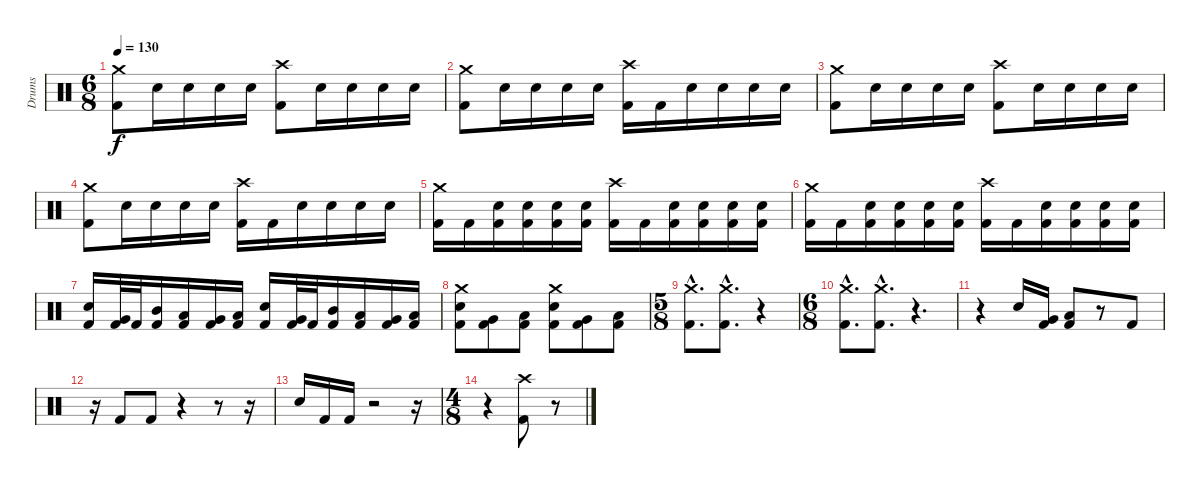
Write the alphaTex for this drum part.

\track ("Drums" "Drums") {instrument percussion}
\staff {score}
\articulation defaults
\ts (6 8)
\section ("" "")
\tempo 130
\clef neutral
\ks c
("Crash medium (hit)" "Kick (hit) 2").8{dy f} "Electric Snare (hit)".16 "Electric Snare (hit)".16 "Electric Snare (hit)".16 "Electric Snare (hit)".16 ("Crash high (hit)" "Kick (hit) 2").8 "Electric Snare (hit)".16 "Electric Snare (hit)".16 "Electric Snare (hit)".16 "Electric Snare (hit)".16 |
("Crash medium (hit)" "Kick (hit) 2").8 "Electric Snare (hit)".16 "Electric Snare (hit)".16 "Electric Snare (hit)".16 "Electric Snare (hit)".16 ("Crash high (hit)" "Kick (hit) 2").16 "Kick (hit) 2".16 "Electric Snare (hit)".16 "Electric Snare (hit)".16 "Electric Snare (hit)".16 "Electric Snare (hit)".16 |
("Crash medium (hit)" "Kick (hit) 2").8 "Electric Snare (hit)".16 "Electric Snare (hit)".16 "Electric Snare (hit)".16 "Electric Snare (hit)".16 ("Crash high (hit)" "Kick (hit) 2").8 "Electric Snare (hit)".16 "Electric Snare (hit)".16 "Electric Snare (hit)".16 "Electric Snare (hit)".16 |
("Crash medium (hit)" "Kick (hit) 2").8 "Electric Snare (hit)".16 "Electric Snare (hit)".16 "Electric Snare (hit)".16 "Electric Snare (hit)".16 ("Crash high (hit)" "Kick (hit) 2").16 "Kick (hit) 2".16 "Electric Snare (hit)".16 "Electric Snare (hit)".16 "Electric Snare (hit)".16 "Electric Snare (hit)".16 |
("Crash medium (hit)" "Kick (hit) 2").16 "Kick (hit) 2".16 ("Electric Snare (hit)" "Kick (hit) 2").16 ("Electric Snare (hit)" "Kick (hit) 2").16 ("Electric Snare (hit)" "Kick (hit) 2").16 ("Electric Snare (hit)" "Kick (hit) 2").16 ("Crash high (hit)" "Kick (hit) 2").16 "Kick (hit) 2".16 ("Electric Snare (hit)" "Kick (hit) 2").16 ("Electric Snare (hit)" "Kick (hit) 2").16 ("Electric Snare (hit)" "Kick (hit) 2").16 ("Electric Snare (hit)" "Kick (hit) 2").16 |
("Crash medium (hit)" "Kick (hit) 2").16 "Kick (hit) 2".16 ("Electric Snare (hit)" "Kick (hit) 2").16 ("Electric Snare (hit)" "Kick (hit) 2").16 ("Electric Snare (hit)" "Kick (hit) 2").16 ("Electric Snare (hit)" "Kick (hit) 2").16 ("Crash high (hit)" "Kick (hit) 2").16 "Kick (hit) 2".16 ("Electric Snare (hit)" "Kick (hit) 2").16 ("Electric Snare (hit)" "Kick (hit) 2").16 ("Electric Snare (hit)" "Kick (hit) 2").16 ("Electric Snare (hit)" "Kick (hit) 2").16 |
("Electric Snare (hit)" "Kick (hit) 2").16 ("Very Low Tom (hit)" "Kick (hit) 2").32 "Kick (hit) 2".32 ("Mid Tom (hit)" "Kick (hit) 2").16 ("Low Tom (hit)" "Kick (hit) 2").16 ("Very Low Tom (hit)" "Kick (hit) 2").16 ("Low Floor Tom (hit)" "Kick (hit) 2").16 ("Electric Snare (hit)" "Kick (hit) 2").16 ("Very Low Tom (hit)" "Kick (hit) 2").32 "Kick (hit) 2".32 ("Mid Tom (hit)" "Kick (hit) 2").16 ("Low Tom (hit)" "Kick (hit) 2").16 ("Very Low Tom (hit)" "Kick (hit) 2").16 ("Low Floor Tom (hit)" "Kick (hit) 2").16 |
("Crash medium (hit)" "Electric Snare (hit)" "Kick (hit) 2").8 ("Very Low Tom (hit)" "Kick (hit) 2").8 ("Low Floor Tom (hit)" "Kick (hit) 2").8 ("Crash medium (hit)" "Electric Snare (hit)" "Kick (hit) 2").8 ("Very Low Tom (hit)" "Kick (hit) 2").8 ("Low Floor Tom (hit)" "Kick (hit) 2").8 |
\ts (5 8)
("Crash medium (hit)"{hac} "Kick (hit) 2"{hac}).8{d} ("Crash medium (hit)"{hac} "Kick (hit) 2"{hac}).8{d} r.4 |
\ts (6 8)
("Crash medium (hit)"{hac} "Kick (hit) 2"{hac}).8{d} ("Crash medium (hit)"{hac} "Kick (hit) 2"{hac}).8{d} r.4{d} |
r.4 "Electric Snare (hit)".16 ("Very Low Tom (hit)" "Kick (hit) 2").16 ("Low Floor Tom (hit)" "Kick (hit) 2").8 r.8 "Kick (hit) 2".8 |
r.16 "Kick (hit) 2".8 "Kick (hit) 2".8 r.4 r.8 r.16 |
"Electric Snare (hit)".16 "Kick (hit) 2".16 "Kick (hit) 2".16 r.2 r.16 |
\ts (4 8)
r.4 ("Crash high (hit)" "Kick (hit) 2").8 r.8
